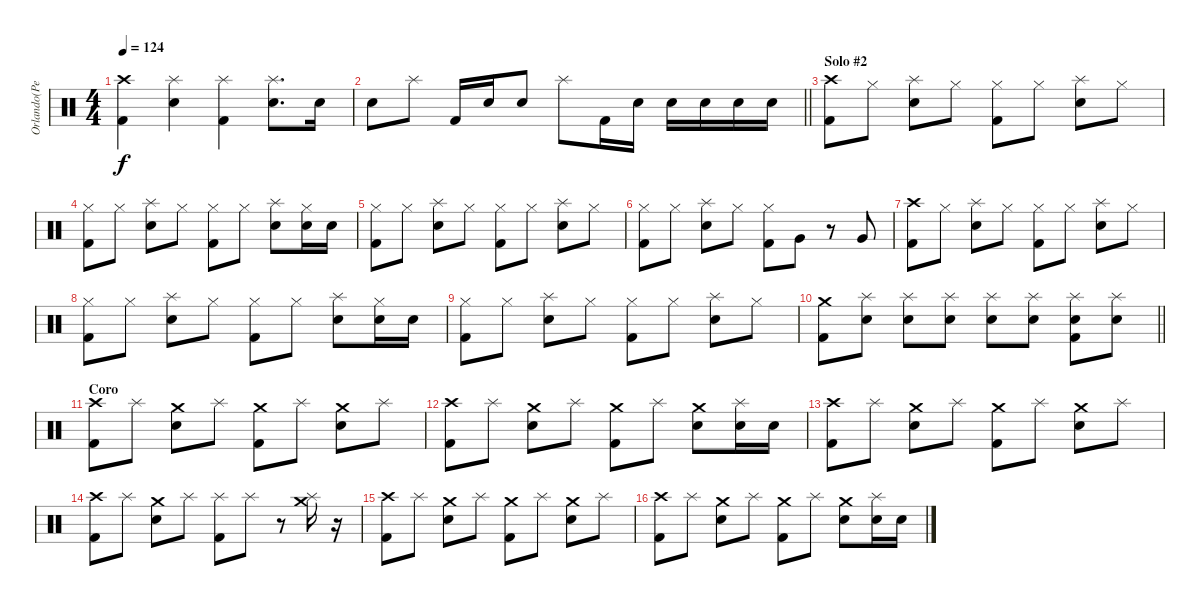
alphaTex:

\track ("Orlando(Percusión)" "Orlando(Pe") {instrument percussion}
\staff {score}
\articulation defaults
\ts (4 4)
\tempo 124
\clef neutral
\ks c
("Crash high (hit)" "Kick (hit) 2").4{dy f} ("Splash (hit)" "Electric Snare (hit)").4 ("Splash (hit)" "Kick (hit) 2").4 ("Splash (hit)" "Electric Snare (hit)").8{d} "Electric Snare (hit)".16 |
\barLineRight lightlight "Electric Snare (hit)".8 "Splash (hit)".8 "Kick (hit) 2".16 "Electric Snare (hit)".16 "Electric Snare (hit)".8 "Splash (hit)".8 "Kick (hit) 2".16 "Electric Snare (hit)".16 "Electric Snare (hit)".16 "Electric Snare (hit)".16 "Electric Snare (hit)".16 "Electric Snare (hit)".16
|
\section ("" "Solo #2")
("Crash high (hit)" "Kick (hit) 2").8 "Hi-Hat (closed)".8 ("Splash (hit)" "Electric Snare (hit)").8 "Hi-Hat (closed)".8 ("Hi-Hat (closed)" "Kick (hit) 2").8 "Hi-Hat (closed)".8 ("Splash (hit)" "Electric Snare (hit)").8 "Hi-Hat (closed)".8 |
("Hi-Hat (closed)" "Kick (hit) 2").8 "Hi-Hat (closed)".8 ("Splash (hit)" "Electric Snare (hit)").8 "Hi-Hat (closed)".8 ("Hi-Hat (closed)" "Kick (hit) 2").8 "Hi-Hat (closed)".8 ("Splash (hit)" "Electric Snare (hit)").8 ("Hi-Hat (closed)" "Electric Snare (hit)").16 "Electric Snare (hit)".16 |
("Hi-Hat (closed)" "Kick (hit) 2").8 "Hi-Hat (closed)".8 ("Splash (hit)" "Electric Snare (hit)").8 "Hi-Hat (closed)".8 ("Hi-Hat (closed)" "Kick (hit) 2").8 "Hi-Hat (closed)".8 ("Splash (hit)" "Electric Snare (hit)").8 "Hi-Hat (closed)".8 |
("Hi-Hat (closed)" "Kick (hit) 2").8 "Hi-Hat (closed)".8 ("Splash (hit)" "Electric Snare (hit)").8 "Hi-Hat (closed)".8 ("Hi-Hat (closed)" "Kick (hit) 2").8 "Very Low Tom (hit)".8 r.8 "Very Low Tom (hit)".8 |
("Crash high (hit)" "Kick (hit) 2").8 "Hi-Hat (closed)".8 ("Splash (hit)" "Electric Snare (hit)").8 "Hi-Hat (closed)".8 ("Hi-Hat (closed)" "Kick (hit) 2").8 "Hi-Hat (closed)".8 ("Splash (hit)" "Electric Snare (hit)").8 "Hi-Hat (closed)".8 |
("Hi-Hat (closed)" "Kick (hit) 2").8 "Hi-Hat (closed)".8 ("Splash (hit)" "Electric Snare (hit)").8 "Hi-Hat (closed)".8 ("Hi-Hat (closed)" "Kick (hit) 2").8 "Hi-Hat (closed)".8 ("Splash (hit)" "Electric Snare (hit)").8 ("Hi-Hat (closed)" "Electric Snare (hit)").16 "Electric Snare (hit)".16 |
("Hi-Hat (closed)" "Kick (hit) 2").8 "Hi-Hat (closed)".8 ("Splash (hit)" "Electric Snare (hit)").8 "Hi-Hat (closed)".8 ("Hi-Hat (closed)" "Kick (hit) 2").8 "Hi-Hat (closed)".8 ("Splash (hit)" "Electric Snare (hit)").8 "Hi-Hat (closed)".8 |
\barLineRight lightlight
("Crash medium (hit)" "Kick (hit) 2").8{volume 3} ("Splash (hit)" "Electric Snare (hit)").8{volume 12} ("Splash (hit)" "Electric Snare (hit)").8 ("Splash (hit)" "Electric Snare (hit)").8 ("Splash (hit)" "Electric Snare (hit)").8 ("Splash (hit)" "Electric Snare (hit)").8 ("Splash (hit)" "Electric Snare (hit)" "Kick (hit) 2").8 ("Splash (hit)" "Electric Snare (hit)").8 |
\section ("" "Coro")
("Crash high (hit)" "Kick (hit) 2").8 "Splash (hit)".8 ("Crash medium (hit)" "Electric Snare (hit)").8 "Splash (hit)".8 ("Crash medium (hit)" "Kick (hit) 2").8 "Splash (hit)".8 ("Crash medium (hit)" "Electric Snare (hit)").8 "Splash (hit)".8 |
("Crash high (hit)" "Kick (hit) 2").8 "Splash (hit)".8 ("Crash medium (hit)" "Electric Snare (hit)").8 "Splash (hit)".8 ("Crash medium (hit)" "Kick (hit) 2").8 "Splash (hit)".8 ("Crash medium (hit)" "Electric Snare (hit)").8 ("Splash (hit)" "Electric Snare (hit)").16 "Electric Snare (hit)".16 |
("Crash high (hit)" "Kick (hit) 2").8 "Splash (hit)".8 ("Crash medium (hit)" "Electric Snare (hit)").8 "Splash (hit)".8 ("Crash medium (hit)" "Kick (hit) 2").8 "Splash (hit)".8 ("Crash medium (hit)" "Electric Snare (hit)").8 "Splash (hit)".8 |
("Crash high (hit)" "Kick (hit) 2").8 "Splash (hit)".8 ("Crash medium (hit)" "Electric Snare (hit)").8 "Splash (hit)".8 ("Splash (hit)" "Kick (hit) 2").8 "Splash (hit)".8 r.8 ("Splash (hit)" "Crash medium (hit)").16 r.16 |
("Crash high (hit)" "Kick (hit) 2").8 "Splash (hit)".8 ("Crash medium (hit)" "Electric Snare (hit)").8 "Splash (hit)".8 ("Crash medium (hit)" "Kick (hit) 2").8 "Splash (hit)".8 ("Crash medium (hit)" "Electric Snare (hit)").8 "Splash (hit)".8 |
("Crash high (hit)" "Kick (hit) 2").8 "Splash (hit)".8 ("Crash medium (hit)" "Electric Snare (hit)").8 "Splash (hit)".8 ("Crash medium (hit)" "Kick (hit) 2").8 "Splash (hit)".8 ("Crash medium (hit)" "Electric Snare (hit)").8 ("Splash (hit)" "Electric Snare (hit)").16 "Electric Snare (hit)".16
